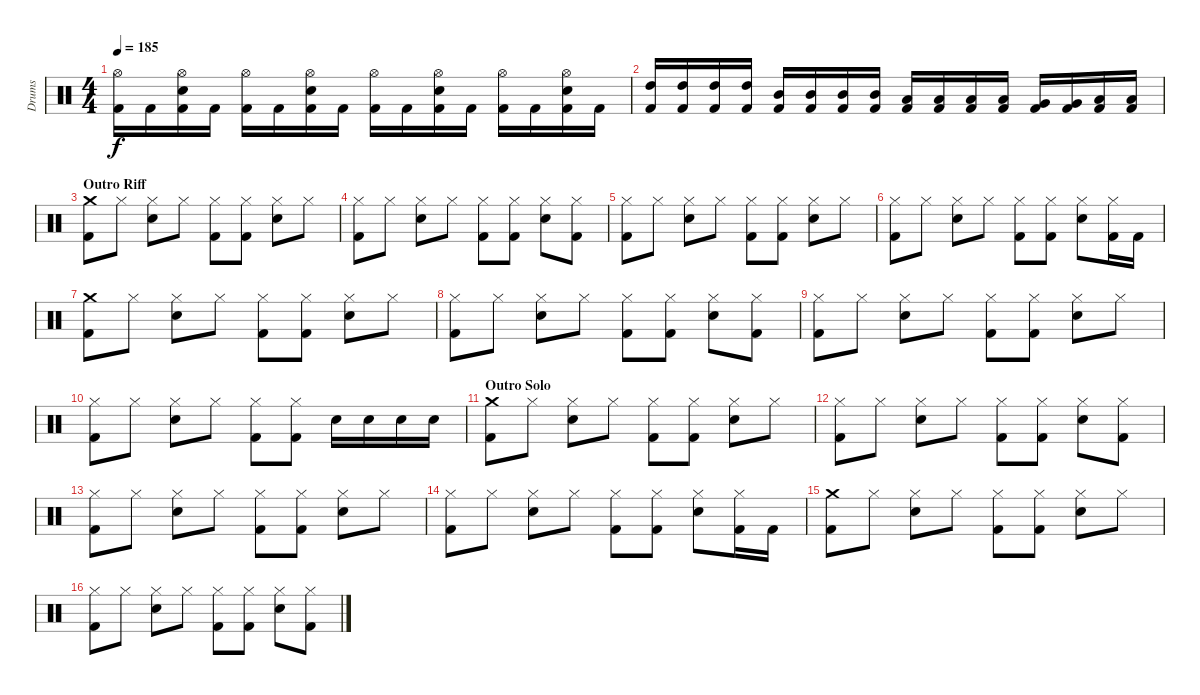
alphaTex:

\track ("Drums" "Drums") {instrument percussion}
\staff {score}
\articulation defaults
\ts (4 4)
\tempo 185
\clef neutral
\ks c
("Kick (hit) 2" "Hi-Hat (open)").16{dy f} "Kick (hit) 2".16 ("Kick (hit) 2" "Electric Snare (hit)" "Hi-Hat (open)").16 "Kick (hit) 2".16 ("Kick (hit) 2" "Hi-Hat (open)").16 "Kick (hit) 2".16 ("Kick (hit) 2" "Electric Snare (hit)" "Hi-Hat (open)").16 "Kick (hit) 2".16 ("Kick (hit) 2" "Hi-Hat (open)").16 "Kick (hit) 2".16 ("Kick (hit) 2" "Electric Snare (hit)" "Hi-Hat (open)").16 "Kick (hit) 2".16 ("Kick (hit) 2" "Hi-Hat (open)").16 "Kick (hit) 2".16 ("Kick (hit) 2" "Electric Snare (hit)" "Hi-Hat (open)").16 "Kick (hit) 2".16 |
("Kick (hit) 2" "High Tom (hit)").16 ("Kick (hit) 2" "High Tom (hit)").16 ("Kick (hit) 2" "High Tom (hit)").16 ("Kick (hit) 2" "High Tom (hit)").16 ("Kick (hit) 2" "Mid Tom (hit)").16 ("Kick (hit) 2" "Mid Tom (hit)").16 ("Kick (hit) 2" "Mid Tom (hit)").16 ("Kick (hit) 2" "Mid Tom (hit)").16 ("Kick (hit) 2" "Low Tom (hit)").16 ("Kick (hit) 2" "Low Tom (hit)").16 ("Kick (hit) 2" "Low Tom (hit)").16 ("Kick (hit) 2" "Low Tom (hit)").16 ("Kick (hit) 2" "Very Low Tom (hit)").16 ("Kick (hit) 2" "Very Low Tom (hit)").16 ("Kick (hit) 2" "Low Floor Tom (hit)").16 ("Kick (hit) 2" "Low Floor Tom (hit)").16 |
\section ("" "Outro Riff")
("Kick (hit) 2" "Crash medium (hit)").8 "Hi-Hat (closed)".8 ("Electric Snare (hit)" "Hi-Hat (closed)").8 "Hi-Hat (closed)".8 ("Kick (hit) 2" "Hi-Hat (closed)").8 ("Kick (hit) 2" "Hi-Hat (closed)").8 ("Electric Snare (hit)" "Hi-Hat (closed)").8 "Hi-Hat (closed)".8 |
("Kick (hit) 2" "Hi-Hat (closed)").8 "Hi-Hat (closed)".8 ("Electric Snare (hit)" "Hi-Hat (closed)").8 "Hi-Hat (closed)".8 ("Kick (hit) 2" "Hi-Hat (closed)").8 ("Kick (hit) 2" "Hi-Hat (closed)").8 ("Electric Snare (hit)" "Hi-Hat (closed)").8 ("Kick (hit) 2" "Hi-Hat (closed)").8 |
("Kick (hit) 2" "Hi-Hat (closed)").8 "Hi-Hat (closed)".8 ("Electric Snare (hit)" "Hi-Hat (closed)").8 "Hi-Hat (closed)".8 ("Kick (hit) 2" "Hi-Hat (closed)").8 ("Kick (hit) 2" "Hi-Hat (closed)").8 ("Electric Snare (hit)" "Hi-Hat (closed)").8 "Hi-Hat (closed)".8 |
("Kick (hit) 2" "Hi-Hat (closed)").8 "Hi-Hat (closed)".8 ("Electric Snare (hit)" "Hi-Hat (closed)").8 "Hi-Hat (closed)".8 ("Kick (hit) 2" "Hi-Hat (closed)").8 ("Kick (hit) 2" "Hi-Hat (closed)").8 ("Electric Snare (hit)" "Hi-Hat (closed)").8 ("Kick (hit) 2" "Hi-Hat (closed)").16 "Kick (hit) 2".16 |
("Kick (hit) 2" "Crash medium (hit)").8 "Hi-Hat (closed)".8 ("Electric Snare (hit)" "Hi-Hat (closed)").8 "Hi-Hat (closed)".8 ("Kick (hit) 2" "Hi-Hat (closed)").8 ("Kick (hit) 2" "Hi-Hat (closed)").8 ("Electric Snare (hit)" "Hi-Hat (closed)").8 "Hi-Hat (closed)".8 |
("Kick (hit) 2" "Hi-Hat (closed)").8 "Hi-Hat (closed)".8 ("Electric Snare (hit)" "Hi-Hat (closed)").8 "Hi-Hat (closed)".8 ("Kick (hit) 2" "Hi-Hat (closed)").8 ("Kick (hit) 2" "Hi-Hat (closed)").8 ("Electric Snare (hit)" "Hi-Hat (closed)").8 ("Kick (hit) 2" "Hi-Hat (closed)").8 |
("Kick (hit) 2" "Hi-Hat (closed)").8 "Hi-Hat (closed)".8 ("Electric Snare (hit)" "Hi-Hat (closed)").8 "Hi-Hat (closed)".8 ("Kick (hit) 2" "Hi-Hat (closed)").8 ("Kick (hit) 2" "Hi-Hat (closed)").8 ("Electric Snare (hit)" "Hi-Hat (closed)").8 "Hi-Hat (closed)".8 |
("Kick (hit) 2" "Hi-Hat (closed)").8 "Hi-Hat (closed)".8 ("Electric Snare (hit)" "Hi-Hat (closed)").8 "Hi-Hat (closed)".8 ("Kick (hit) 2" "Hi-Hat (closed)").8 ("Kick (hit) 2" "Hi-Hat (closed)").8 "Electric Snare (hit)".16 "Electric Snare (hit)".16 "Electric Snare (hit)".16 "Electric Snare (hit)".16 |
\section ("" "Outro Solo")
("Kick (hit) 2" "Crash medium (hit)").8 "Hi-Hat (closed)".8 ("Electric Snare (hit)" "Hi-Hat (closed)").8 "Hi-Hat (closed)".8 ("Kick (hit) 2" "Hi-Hat (closed)").8 ("Kick (hit) 2" "Hi-Hat (closed)").8 ("Electric Snare (hit)" "Hi-Hat (closed)").8 "Hi-Hat (closed)".8 |
("Kick (hit) 2" "Hi-Hat (closed)").8 "Hi-Hat (closed)".8 ("Electric Snare (hit)" "Hi-Hat (closed)").8 "Hi-Hat (closed)".8 ("Kick (hit) 2" "Hi-Hat (closed)").8 ("Kick (hit) 2" "Hi-Hat (closed)").8 ("Electric Snare (hit)" "Hi-Hat (closed)").8 ("Kick (hit) 2" "Hi-Hat (closed)").8 |
("Kick (hit) 2" "Hi-Hat (closed)").8 "Hi-Hat (closed)".8 ("Electric Snare (hit)" "Hi-Hat (closed)").8 "Hi-Hat (closed)".8 ("Kick (hit) 2" "Hi-Hat (closed)").8 ("Kick (hit) 2" "Hi-Hat (closed)").8 ("Electric Snare (hit)" "Hi-Hat (closed)").8 "Hi-Hat (closed)".8 |
("Kick (hit) 2" "Hi-Hat (closed)").8 "Hi-Hat (closed)".8 ("Electric Snare (hit)" "Hi-Hat (closed)").8 "Hi-Hat (closed)".8 ("Kick (hit) 2" "Hi-Hat (closed)").8 ("Kick (hit) 2" "Hi-Hat (closed)").8 ("Electric Snare (hit)" "Hi-Hat (closed)").8 ("Kick (hit) 2" "Hi-Hat (closed)").16 "Kick (hit) 2".16 |
("Kick (hit) 2" "Crash medium (hit)").8{volume 5} "Hi-Hat (closed)".8 ("Electric Snare (hit)" "Hi-Hat (closed)").8 "Hi-Hat (closed)".8 ("Kick (hit) 2" "Hi-Hat (closed)").8 ("Kick (hit) 2" "Hi-Hat (closed)").8 ("Electric Snare (hit)" "Hi-Hat (closed)").8 "Hi-Hat (closed)".8 |
("Kick (hit) 2" "Hi-Hat (closed)").8 "Hi-Hat (closed)".8 ("Electric Snare (hit)" "Hi-Hat (closed)").8 "Hi-Hat (closed)".8 ("Kick (hit) 2" "Hi-Hat (closed)").8 ("Kick (hit) 2" "Hi-Hat (closed)").8 ("Electric Snare (hit)" "Hi-Hat (closed)").8 ("Kick (hit) 2" "Hi-Hat (closed)").8
